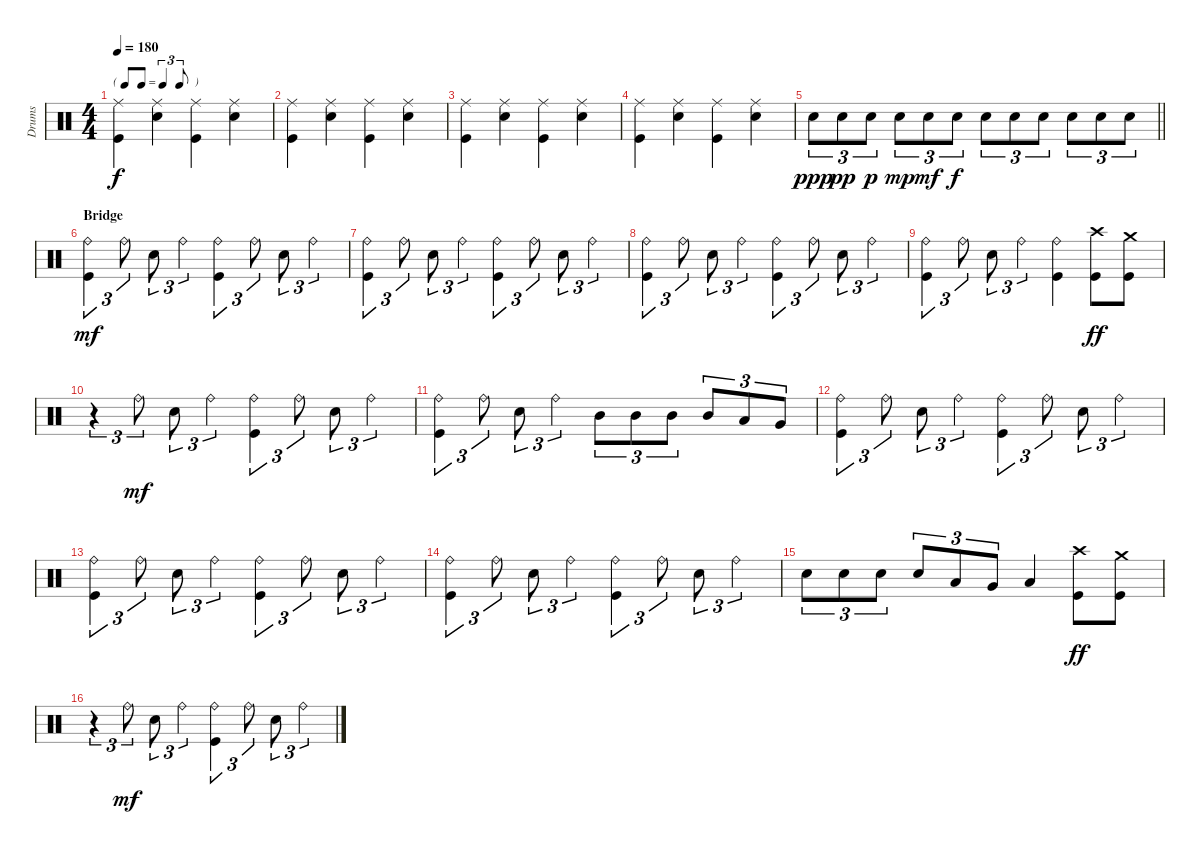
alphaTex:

\track ("Drums" "Drums") {instrument percussion}
\staff {score}
\articulation defaults
\ts (4 4)
\tf triplet8th
\tempo 180
\clef neutral
\ks c
("Ride (middle)" "Kick (hit)").4{dy f} ("Snare (hit) 2" "Ride (middle)").4 ("Ride (middle)" "Kick (hit)").4 ("Snare (hit) 2" "Ride (middle)").4 |
("Ride (middle)" "Kick (hit)").4 ("Snare (hit) 2" "Ride (middle)").4 ("Ride (middle)" "Kick (hit)").4 ("Snare (hit) 2" "Ride (middle)").4 |
("Ride (middle)" "Kick (hit)").4 ("Snare (hit) 2" "Ride (middle)").4 ("Ride (middle)" "Kick (hit)").4 ("Snare (hit) 2" "Ride (middle)").4 |
("Ride (middle)" "Kick (hit)").4 ("Snare (hit) 2" "Ride (middle)").4 ("Ride (middle)" "Kick (hit)").4 ("Snare (hit) 2" "Ride (middle)").4 |
\barLineRight lightlight "Snare (hit) 2".8{tu (3 2) dy ppp} "Snare (hit) 2".8{tu (3 2) dy pp} "Snare (hit) 2".8{tu (3 2) dy p} "Snare (hit) 2".8{tu (3 2) dy mp} "Snare (hit) 2".8{tu (3 2) dy mf} "Snare (hit) 2".8{tu (3 2) dy f} "Snare (hit) 2".8{tu (3 2)} "Snare (hit) 2".8{tu (3 2)} "Snare (hit) 2".8{tu (3 2)} "Snare (hit) 2".8{tu (3 2)} "Snare (hit) 2".8{tu (3 2)} "Snare (hit) 2".8{tu (3 2)}
|
\section ("" "Bridge")
("Ride (bell)" "Kick (hit)").4{tu (3 2) dy mf} "Ride (bell)".8{tu (3 2)} "Snare (hit) 2".8{tu (3 2)} "Ride (bell)".4{tu (3 2)} ("Ride (bell)" "Kick (hit)").4{tu (3 2)} "Ride (bell)".8{tu (3 2)} "Snare (hit) 2".8{tu (3 2)} "Ride (bell)".4{tu (3 2)} |
("Ride (bell)" "Kick (hit)").4{tu (3 2)} "Ride (bell)".8{tu (3 2)} "Snare (hit) 2".8{tu (3 2)} "Ride (bell)".4{tu (3 2)} ("Ride (bell)" "Kick (hit)").4{tu (3 2)} "Ride (bell)".8{tu (3 2)} "Snare (hit) 2".8{tu (3 2)} "Ride (bell)".4{tu (3 2)} |
("Ride (bell)" "Kick (hit)").4{tu (3 2)} "Ride (bell)".8{tu (3 2)} "Snare (hit) 2".8{tu (3 2)} "Ride (bell)".4{tu (3 2)} ("Ride (bell)" "Kick (hit)").4{tu (3 2)} "Ride (bell)".8{tu (3 2)} "Snare (hit) 2".8{tu (3 2)} "Ride (bell)".4{tu (3 2)} |
("Ride (bell)" "Kick (hit)").4{tu (3 2)} "Ride (bell)".8{tu (3 2)} "Snare (hit) 2".8{tu (3 2)} "Ride (bell)".4{tu (3 2)} ("Ride (bell)" "Kick (hit)").4 ("Kick (hit)" "Crash high (hit)").8{dy ff} ("Crash medium (hit)" "Kick (hit)").8 |
r.4{tu (3 2)} "Ride (bell)".8{tu (3 2) dy mf} "Snare (hit) 2".8{tu (3 2)} "Ride (bell)".4{tu (3 2)} ("Ride (bell)" "Kick (hit)").4{tu (3 2)} "Ride (bell)".8{tu (3 2)} "Snare (hit) 2".8{tu (3 2)} "Ride (bell)".4{tu (3 2)} |
("Ride (bell)" "Kick (hit)").4{tu (3 2)} "Ride (bell)".8{tu (3 2)} "Snare (hit) 2".8{tu (3 2)} "Ride (bell)".4{tu (3 2)} "Mid Tom (hit)".8{tu (3 2)} "Mid Tom (hit)".8{tu (3 2)} "Mid Tom (hit)".8{tu (3 2)} "Mid Tom (hit)".8{tu (3 2)} "Low Tom (hit)".8{tu (3 2)} "Very Low Tom (hit)".8{tu (3 2)} |
("Ride (bell)" "Kick (hit)").4{tu (3 2)} "Ride (bell)".8{tu (3 2)} "Snare (hit) 2".8{tu (3 2)} "Ride (bell)".4{tu (3 2)} ("Ride (bell)" "Kick (hit)").4{tu (3 2)} "Ride (bell)".8{tu (3 2)} "Snare (hit) 2".8{tu (3 2)} "Ride (bell)".4{tu (3 2)} |
("Ride (bell)" "Kick (hit)").4{tu (3 2)} "Ride (bell)".8{tu (3 2)} "Snare (hit) 2".8{tu (3 2)} "Ride (bell)".4{tu (3 2)} ("Ride (bell)" "Kick (hit)").4{tu (3 2)} "Ride (bell)".8{tu (3 2)} "Snare (hit) 2".8{tu (3 2)} "Ride (bell)".4{tu (3 2)} |
("Ride (bell)" "Kick (hit)").4{tu (3 2)} "Ride (bell)".8{tu (3 2)} "Snare (hit) 2".8{tu (3 2)} "Ride (bell)".4{tu (3 2)} ("Ride (bell)" "Kick (hit)").4{tu (3 2)} "Ride (bell)".8{tu (3 2)} "Snare (hit) 2".8{tu (3 2)} "Ride (bell)".4{tu (3 2)} |
"Snare (hit) 2".8{tu (3 2)} "Snare (hit) 2".8{tu (3 2)} "Snare (hit) 2".8{tu (3 2)} "Snare (hit) 2".8{tu (3 2)} "Low Tom (hit)".8{tu (3 2)} "Very Low Tom (hit)".8{tu (3 2)} "Low Floor Tom (hit)".4 ("Kick (hit)" "Crash high (hit)").8{dy ff} ("Crash medium (hit)" "Kick (hit)").8 |
r.4{tu (3 2)} "Ride (bell)".8{tu (3 2) dy mf} "Snare (hit) 2".8{tu (3 2)} "Ride (bell)".4{tu (3 2)} ("Ride (bell)" "Kick (hit)").4{tu (3 2)} "Ride (bell)".8{tu (3 2)} "Snare (hit) 2".8{tu (3 2)} "Ride (bell)".4{tu (3 2)}
